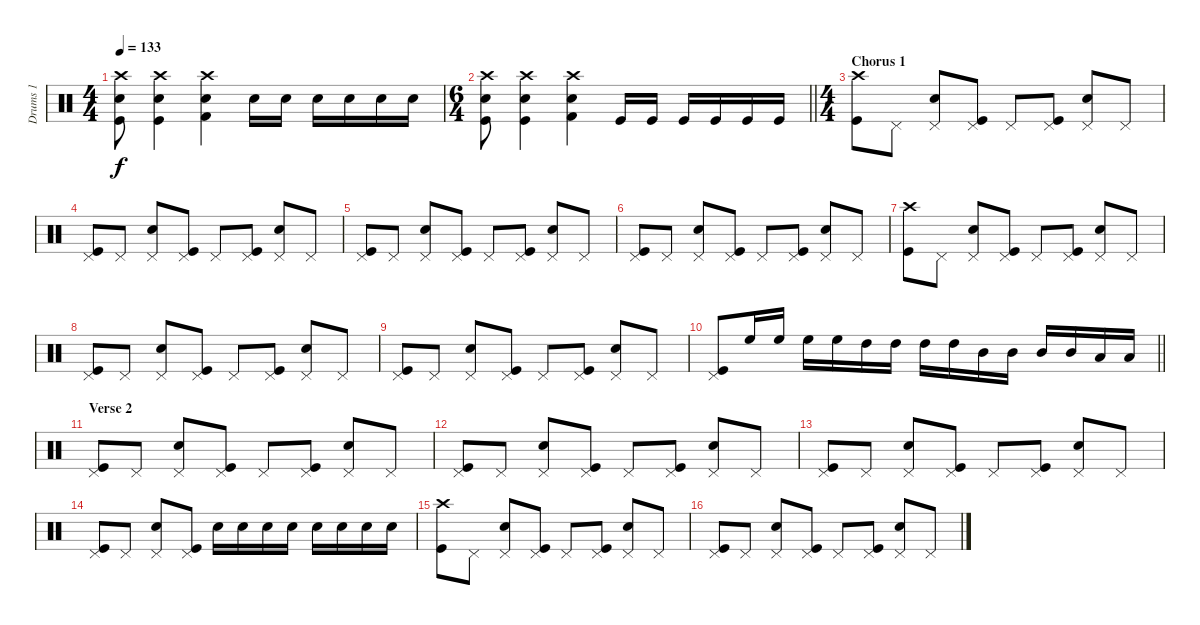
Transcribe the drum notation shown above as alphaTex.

\track ("Drums 1" "Drums 1") {instrument percussion}
\staff {score}
\articulation defaults
\ts (4 4)
\tempo 133
\clef neutral
\ks c
("Crash high (hit)" "Electric Snare (hit)" "Kick (hit)").8{dy f} ("Crash high (hit)" "Electric Snare (hit)" "Kick (hit)").4 ("Electric Snare (hit)" "Kick (hit) 2" "Crash high (hit)").4 "Electric Snare (hit)".16 "Electric Snare (hit)".16 "Electric Snare (hit)".16 "Electric Snare (hit)".16 "Electric Snare (hit)".16 "Electric Snare (hit)".16 |
\ts (6 4)
\barLineRight lightlight
("Crash high (hit)" "Electric Snare (hit)" "Kick (hit)").8 ("Crash high (hit)" "Electric Snare (hit)" "Kick (hit)").4 ("Electric Snare (hit)" "Kick (hit) 2" "Crash high (hit)").4 "Kick (hit)".16 "Kick (hit)".16 "Kick (hit)".16 "Kick (hit)".16 "Kick (hit)".16 "Kick (hit)".16 |
\ts (4 4)
\section ("" "Chorus 1")
("Crash high (hit)" "Kick (hit)").8 "Pedal Hi-Hat (hit)".8 ("Pedal Hi-Hat (hit)" "Electric Snare (hit)").8 ("Pedal Hi-Hat (hit)" "Kick (hit)").8 "Pedal Hi-Hat (hit)".8 ("Pedal Hi-Hat (hit)" "Kick (hit)").8 ("Pedal Hi-Hat (hit)" "Electric Snare (hit)").8 "Pedal Hi-Hat (hit)".8 |
("Pedal Hi-Hat (hit)" "Kick (hit)").8 "Pedal Hi-Hat (hit)".8 ("Pedal Hi-Hat (hit)" "Electric Snare (hit)").8 ("Pedal Hi-Hat (hit)" "Kick (hit)").8 "Pedal Hi-Hat (hit)".8 ("Pedal Hi-Hat (hit)" "Kick (hit)").8 ("Pedal Hi-Hat (hit)" "Electric Snare (hit)").8 "Pedal Hi-Hat (hit)".8 |
("Pedal Hi-Hat (hit)" "Kick (hit)").8 "Pedal Hi-Hat (hit)".8 ("Pedal Hi-Hat (hit)" "Electric Snare (hit)").8 ("Pedal Hi-Hat (hit)" "Kick (hit)").8 "Pedal Hi-Hat (hit)".8 ("Pedal Hi-Hat (hit)" "Kick (hit)").8 ("Pedal Hi-Hat (hit)" "Electric Snare (hit)").8 "Pedal Hi-Hat (hit)".8 |
("Pedal Hi-Hat (hit)" "Kick (hit)").8 "Pedal Hi-Hat (hit)".8 ("Pedal Hi-Hat (hit)" "Electric Snare (hit)").8 ("Pedal Hi-Hat (hit)" "Kick (hit)").8 "Pedal Hi-Hat (hit)".8 ("Pedal Hi-Hat (hit)" "Kick (hit)").8 ("Pedal Hi-Hat (hit)" "Electric Snare (hit)").8 "Pedal Hi-Hat (hit)".8 |
("Crash high (hit)" "Kick (hit)").8 "Pedal Hi-Hat (hit)".8 ("Pedal Hi-Hat (hit)" "Electric Snare (hit)").8 ("Pedal Hi-Hat (hit)" "Kick (hit)").8 "Pedal Hi-Hat (hit)".8 ("Pedal Hi-Hat (hit)" "Kick (hit)").8 ("Pedal Hi-Hat (hit)" "Electric Snare (hit)").8 "Pedal Hi-Hat (hit)".8 |
("Pedal Hi-Hat (hit)" "Kick (hit)").8 "Pedal Hi-Hat (hit)".8 ("Pedal Hi-Hat (hit)" "Electric Snare (hit)").8 ("Pedal Hi-Hat (hit)" "Kick (hit)").8 "Pedal Hi-Hat (hit)".8 ("Pedal Hi-Hat (hit)" "Kick (hit)").8 ("Pedal Hi-Hat (hit)" "Electric Snare (hit)").8 "Pedal Hi-Hat (hit)".8 |
("Pedal Hi-Hat (hit)" "Kick (hit)").8 "Pedal Hi-Hat (hit)".8 ("Pedal Hi-Hat (hit)" "Electric Snare (hit)").8 ("Pedal Hi-Hat (hit)" "Kick (hit)").8 "Pedal Hi-Hat (hit)".8 ("Pedal Hi-Hat (hit)" "Kick (hit)").8 ("Pedal Hi-Hat (hit)" "Electric Snare (hit)").8 "Pedal Hi-Hat (hit)".8 |
\barLineRight lightlight
("Pedal Hi-Hat (hit)" "Kick (hit)").8 "High Floor Tom (hit)".16 "High Floor Tom (hit)".16 "High Floor Tom (hit)".16 "High Floor Tom (hit)".16 "High Tom (hit)".16 "High Tom (hit)".16 "High Tom (hit)".16 "High Tom (hit)".16 "Mid Tom (hit)".16 "Mid Tom (hit)".16 "Mid Tom (hit)".16 "Mid Tom (hit)".16 "Low Tom (hit)".16 "Low Tom (hit)".16 |
\section ("" "Verse 2")
("Pedal Hi-Hat (hit)" "Kick (hit)").8 "Pedal Hi-Hat (hit)".8 ("Pedal Hi-Hat (hit)" "Electric Snare (hit)").8 ("Pedal Hi-Hat (hit)" "Kick (hit)").8 "Pedal Hi-Hat (hit)".8 ("Pedal Hi-Hat (hit)" "Kick (hit)").8 ("Pedal Hi-Hat (hit)" "Electric Snare (hit)").8 "Pedal Hi-Hat (hit)".8 |
("Pedal Hi-Hat (hit)" "Kick (hit)").8 "Pedal Hi-Hat (hit)".8 ("Pedal Hi-Hat (hit)" "Electric Snare (hit)").8 ("Pedal Hi-Hat (hit)" "Kick (hit)").8 "Pedal Hi-Hat (hit)".8 ("Pedal Hi-Hat (hit)" "Kick (hit)").8 ("Pedal Hi-Hat (hit)" "Electric Snare (hit)").8 "Pedal Hi-Hat (hit)".8 |
("Pedal Hi-Hat (hit)" "Kick (hit)").8 "Pedal Hi-Hat (hit)".8 ("Pedal Hi-Hat (hit)" "Electric Snare (hit)").8 ("Pedal Hi-Hat (hit)" "Kick (hit)").8 "Pedal Hi-Hat (hit)".8 ("Pedal Hi-Hat (hit)" "Kick (hit)").8 ("Pedal Hi-Hat (hit)" "Electric Snare (hit)").8 "Pedal Hi-Hat (hit)".8 |
("Pedal Hi-Hat (hit)" "Kick (hit)").8 "Pedal Hi-Hat (hit)".8 ("Pedal Hi-Hat (hit)" "Electric Snare (hit)").8 ("Pedal Hi-Hat (hit)" "Kick (hit)").8 "Electric Snare (hit)".16 "Electric Snare (hit)".16 "Electric Snare (hit)".16 "Electric Snare (hit)".16 "Electric Snare (hit)".16 "Electric Snare (hit)".16 "Electric Snare (hit)".16 "Electric Snare (hit)".16 |
("Crash high (hit)" "Kick (hit)").8 "Pedal Hi-Hat (hit)".8 ("Pedal Hi-Hat (hit)" "Electric Snare (hit)").8 ("Pedal Hi-Hat (hit)" "Kick (hit)").8 "Pedal Hi-Hat (hit)".8 ("Pedal Hi-Hat (hit)" "Kick (hit)").8 ("Pedal Hi-Hat (hit)" "Electric Snare (hit)").8 "Pedal Hi-Hat (hit)".8 |
("Pedal Hi-Hat (hit)" "Kick (hit)").8 "Pedal Hi-Hat (hit)".8 ("Pedal Hi-Hat (hit)" "Electric Snare (hit)").8 ("Pedal Hi-Hat (hit)" "Kick (hit)").8 "Pedal Hi-Hat (hit)".8 ("Pedal Hi-Hat (hit)" "Kick (hit)").8 ("Pedal Hi-Hat (hit)" "Electric Snare (hit)").8 "Pedal Hi-Hat (hit)".8
